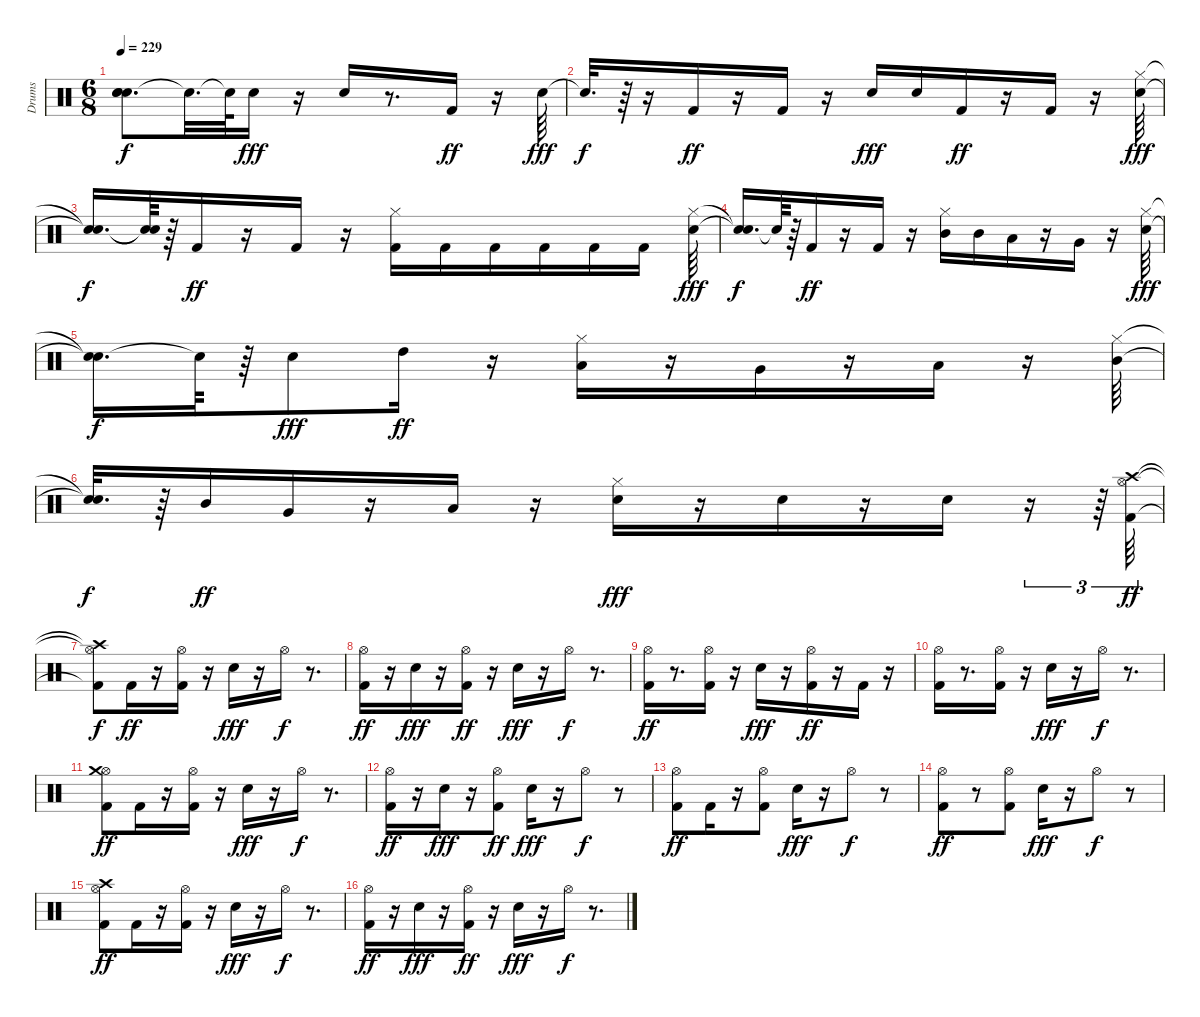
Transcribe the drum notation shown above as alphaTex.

\track ("Drums" "Drums") {instrument percussion}
\staff {score}
\articulation defaults
\ts (6 8)
\tempo 229
\clef neutral
\ks c
("Snare (hit)"{t} "Snare (hit)"{t} "Snare (hit)"{t}).8{d dy f} "Snare (hit)"{t}.32{d} "Snare (hit)"{t}.64 "Snare (hit) 2".16{dy fff} r.16 "Snare (hit) 2".16 r.8{d} "Kick (hit) 2".16{dy ff} r.16 "Snare (hit) 2".64{dy fff} |
"Snare (hit)"{t}.32{d dy f} r.64 r.16 "Kick (hit) 2".16{dy ff} r.16 "Kick (hit) 2".16 r.16 "Snare (hit) 2".16{dy fff} "Snare (hit) 2".16 "Kick (hit) 2".16{dy ff} r.16 "Kick (hit) 2".16 r.16 ("Snare (hit) 2" "Hi-Hat (closed)").64{dy fff} |
("Snare (hit)"{t} "Snare (hit)"{t}).16{d dy f} ("Snare (hit)"{t} "Snare (hit)"{t}).64 r.64 "Kick (hit) 2".16{dy ff} r.16 "Kick (hit) 2".16 r.16 ("Kick (hit) 2" "Hi-Hat (closed)").16 "Kick (hit) 2".16 "Kick (hit) 2".16 "Kick (hit) 2".16 "Kick (hit) 2".16 "Kick (hit) 2".16 ("Snare (hit) 2" "Hi-Hat (closed)").64{dy fff} |
("Snare (hit)"{t} "Snare (hit)"{t}).16{d dy f} "Snare (hit)"{t}.64 r.64 "Kick (hit) 2".16{dy ff} r.16 "Kick (hit) 2".16 r.16 ("Hi-Hat (closed)" "Mid Tom (hit)").16 "Mid Tom (hit)".16 "Low Tom (hit)".16 r.16 "Very Low Tom (hit)".16 r.16 ("Snare (hit) 2" "Hi-Hat (closed)").64{dy fff} |
("Snare (hit)"{t} "Snare (hit)"{t}).16{d dy f} "Snare (hit)"{t}.64 r.64 "Snare (hit) 2".8{dy fff} "High Tom (hit)".16{dy ff} r.16 ("Hi-Hat (closed)" "Low Tom (hit)").16 r.16 "Very Low Tom (hit)".16 r.16 "Low Floor Tom (hit)".16 r.16 ("Hi-Hat (closed)" "Mid Tom (hit)").64 |
("Snare (hit)"{t} "Snare (hit)"{t}).32{d dy f} r.64 "Mid Tom (hit)".16{dy ff} "Very Low Tom (hit)".16 r.16 "Low Floor Tom (hit)".16 r.16 ("Snare (hit) 2" "Hi-Hat (closed)").16{dy fff} r.16 "Snare (hit) 2".16 r.16 "Snare (hit) 2".16 r.16{tu (3 2)} r.64{tu (3 2)} ("Kick (hit) 2" "Hi-Hat (open)" "Crash high (hit)").64{tu (3 2) dy ff} |
("Kick (hit) 2"{t} "Hi-Hat (open)"{t} "Crash high (hit)"{t}).8{dy f} "Kick (hit) 2".16{dy ff} r.16 ("Kick (hit) 2" "Hi-Hat (open)").16 r.16 "Snare (hit) 2".16{dy fff} r.16 "Hi-Hat (open)".16{dy f} r.8{d} |
("Kick (hit) 2" "Hi-Hat (open)").16{dy ff} r.16 "Snare (hit) 2".16{dy fff} r.16 ("Kick (hit) 2" "Hi-Hat (open)").16{dy ff} r.16 "Snare (hit) 2".16{dy fff} r.16 "Hi-Hat (open)".16{dy f} r.8{d} |
("Kick (hit) 2" "Hi-Hat (open)").16{dy ff} r.8{d} ("Kick (hit) 2" "Hi-Hat (open)").16 r.16 "Snare (hit) 2".16{dy fff} r.16 ("Kick (hit) 2" "Hi-Hat (open)").16{dy ff} r.16 "Kick (hit) 2".16 r.16 |
("Kick (hit) 2" "Hi-Hat (open)").16 r.8{d} ("Kick (hit) 2" "Hi-Hat (open)").16 r.16 "Snare (hit) 2".16{dy fff} r.16 "Hi-Hat (open)".16{dy f} r.8{d} |
("Kick (hit) 2" "Hi-Hat (open)" "Crash medium (hit)").8{dy ff} "Kick (hit) 2".16 r.16 ("Kick (hit) 2" "Hi-Hat (open)").16 r.16 "Snare (hit) 2".16{dy fff} r.16 "Hi-Hat (open)".16{dy f} r.8{d} |
("Kick (hit) 2" "Hi-Hat (open)").16{dy ff} r.16 "Snare (hit) 2".16{dy fff} r.16 ("Kick (hit) 2" "Hi-Hat (open)").8{dy ff} "Snare (hit) 2".16{dy fff} r.16 "Hi-Hat (open)".8{dy f} r.8 |
("Kick (hit) 2" "Hi-Hat (open)").8{dy ff} "Kick (hit) 2".16 r.16 ("Kick (hit) 2" "Hi-Hat (open)").8 "Snare (hit) 2".16{dy fff} r.16 "Hi-Hat (open)".8{dy f} r.8 |
("Kick (hit) 2" "Hi-Hat (open)").8{dy ff} r.8 ("Kick (hit) 2" "Hi-Hat (open)").8 "Snare (hit) 2".16{dy fff} r.16 "Hi-Hat (open)".8{dy f} r.8 |
("Kick (hit) 2" "Hi-Hat (open)" "Crash high (hit)").8{dy ff} "Kick (hit) 2".16 r.16 ("Kick (hit) 2" "Hi-Hat (open)").16 r.16 "Snare (hit) 2".16{dy fff} r.16 "Hi-Hat (open)".16{dy f} r.8{d} |
("Kick (hit) 2" "Hi-Hat (open)").16{dy ff} r.16 "Snare (hit) 2".16{dy fff} r.16 ("Kick (hit) 2" "Hi-Hat (open)").16{dy ff} r.16 "Snare (hit) 2".16{dy fff} r.16 "Hi-Hat (open)".16{dy f} r.8{d}
